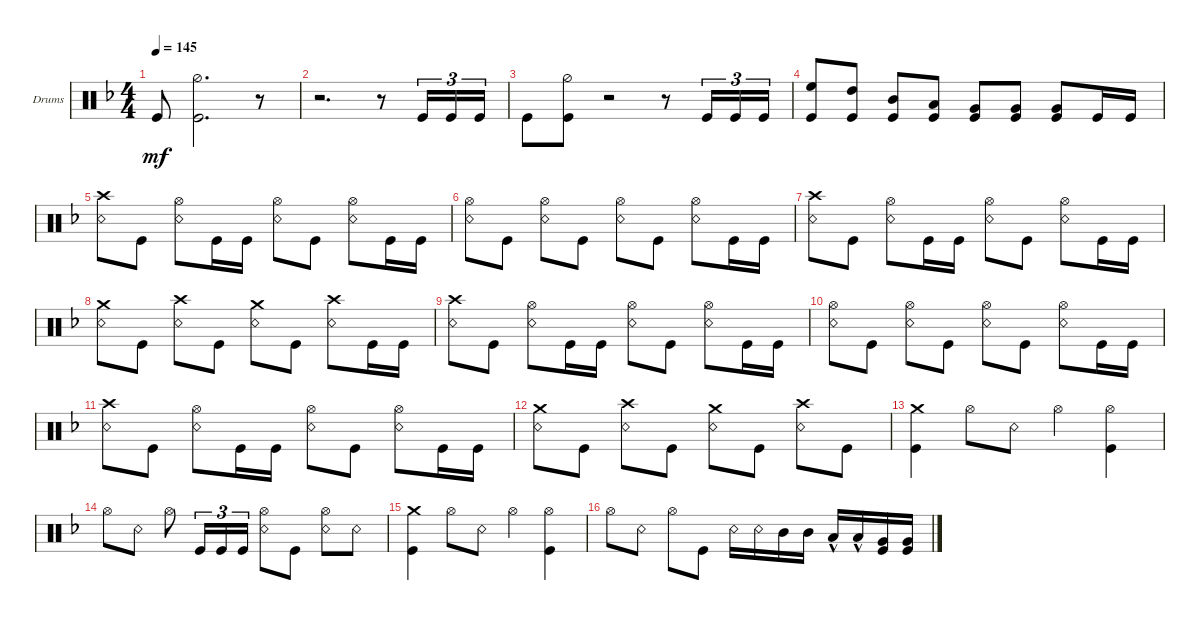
\defaultSystemsLayout 4
\bracketExtendMode groupsimilarinstruments
\firstSystemTrackNameOrientation horizontal
\otherSystemsTrackNameOrientation horizontal
\track ("Drumkit" "Drums") {instrument percussion}
\staff {score}
\articulation defaults
\ts (4 4)
\tempo 145
\clef neutral
\ks dminor "Kick (hit)".8{dy mf}
("Kick (hit)" "Hi-Hat (half)").2{d} r.8 |
r.2{d} r.8 "Kick (hit)".16{tu (3 2)} "Kick (hit)".16{tu (3 2)} "Kick (hit)".16{tu (3 2)} |
"Kick (hit)".8 ("Kick (hit)" "Hi-Hat (half)").8 r.2 r.8 "Kick (hit)".16{tu (3 2)} "Kick (hit)".16{tu (3 2)} "Kick (hit)".16{tu (3 2)} |
("High Floor Tom (hit)" "Kick (hit)").8 ("High Tom (hit)" "Kick (hit)").8 ("Mid Tom (hit)" "Kick (hit)").8 ("Low Tom (hit)" "Kick (hit)").8 ("Very Low Tom (hit)" "Kick (hit)").8 ("Very Low Tom (hit)" "Kick (hit)").8 ("Very Low Tom (hit)" "Kick (hit)").8 "Kick (hit)".16 "Kick (hit)".16 |
("Crash high (hit)" "Snare (rim shot)").8 "Kick (hit)".8 ("Hi-Hat (open)" "Snare (rim shot)").8 "Kick (hit)".16 "Kick (hit)".16 ("Snare (rim shot)" "Hi-Hat (open)").8 "Kick (hit)".8 ("Snare (rim shot)" "Hi-Hat (open)").8 "Kick (hit)".16 "Kick (hit)".16 |
("Snare (rim shot)" "Hi-Hat (open)").8 "Kick (hit)".8 ("Snare (rim shot)" "Hi-Hat (open)").8 "Kick (hit)".8 ("Snare (rim shot)" "Hi-Hat (open)").8 "Kick (hit)".8 ("Snare (rim shot)" "Hi-Hat (open)").8 "Kick (hit)".16 "Kick (hit)".16 |
("Crash high (hit)" "Snare (rim shot)").8 "Kick (hit)".8 ("Hi-Hat (open)" "Snare (rim shot)").8 "Kick (hit)".16 "Kick (hit)".16 ("Snare (rim shot)" "Hi-Hat (open)").8 "Kick (hit)".8 ("Snare (rim shot)" "Hi-Hat (open)").8 "Kick (hit)".16 "Kick (hit)".16 |
("Snare (rim shot)" "Crash medium (hit)").8 "Kick (hit)".8 ("Snare (rim shot)" "Crash high (hit)").8 "Kick (hit)".8 ("Snare (rim shot)" "Crash medium (hit)").8 "Kick (hit)".8 ("Snare (rim shot)" "Crash high (hit)").8 "Kick (hit)".16 "Kick (hit)".16 |
("Crash high (hit)" "Snare (rim shot)").8 "Kick (hit)".8 ("Hi-Hat (open)" "Snare (rim shot)").8 "Kick (hit)".16 "Kick (hit)".16 ("Snare (rim shot)" "Hi-Hat (open)").8 "Kick (hit)".8 ("Snare (rim shot)" "Hi-Hat (open)").8 "Kick (hit)".16 "Kick (hit)".16 |
("Snare (rim shot)" "Hi-Hat (open)").8 "Kick (hit)".8 ("Snare (rim shot)" "Hi-Hat (open)").8 "Kick (hit)".8 ("Snare (rim shot)" "Hi-Hat (open)").8 "Kick (hit)".8 ("Snare (rim shot)" "Hi-Hat (open)").8 "Kick (hit)".16 "Kick (hit)".16 |
("Crash high (hit)" "Snare (rim shot)").8 "Kick (hit)".8 ("Hi-Hat (open)" "Snare (rim shot)").8 "Kick (hit)".16 "Kick (hit)".16 ("Snare (rim shot)" "Hi-Hat (open)").8 "Kick (hit)".8 ("Snare (rim shot)" "Hi-Hat (open)").8 "Kick (hit)".16 "Kick (hit)".16 |
("Snare (rim shot)" "Crash medium (hit)").8 "Kick (hit)".8 ("Snare (rim shot)" "Crash high (hit)").8 "Kick (hit)".8 ("Snare (rim shot)" "Crash medium (hit)").8 "Kick (hit)".8 ("Snare (rim shot)" "Crash high (hit)").8 "Kick (hit)".8 |
("Kick (hit)" "Crash medium (hit)").4 "Hi-Hat (open)".8 "Snare (rim shot)".8 "Hi-Hat (open)".4 ("Kick (hit)" "Hi-Hat (open)").4 |
"Hi-Hat (open)".8 "Snare (rim shot)".8 "Hi-Hat (open)".8 "Kick (hit)".16{tu (3 2)} "Kick (hit)".16{tu (3 2)} "Kick (hit)".16{tu (3 2)} ("Snare (rim shot)" "Hi-Hat (open)").8 "Kick (hit)".8 ("Hi-Hat (open)" "Snare (rim shot)").8 "Snare (rim shot)".8 |
("Kick (hit)" "Crash medium (hit)").4 "Hi-Hat (open)".8 "Snare (rim shot)".8 "Hi-Hat (open)".4 ("Kick (hit)" "Hi-Hat (open)").4 |
"Hi-Hat (open)".8 "Snare (rim shot)".8 "Hi-Hat (open)".8 "Kick (hit)".8 "Snare (rim shot)".16 "Snare (rim shot)".16 "Mid Tom (hit)".16 "Mid Tom (hit)".16 "Low Tom (hit)"{hac}.16 "Low Tom (hit)"{hac}.16 ("Very Low Tom (hit)" "Kick (hit)").16 ("Very Low Tom (hit)" "Kick (hit)").16
